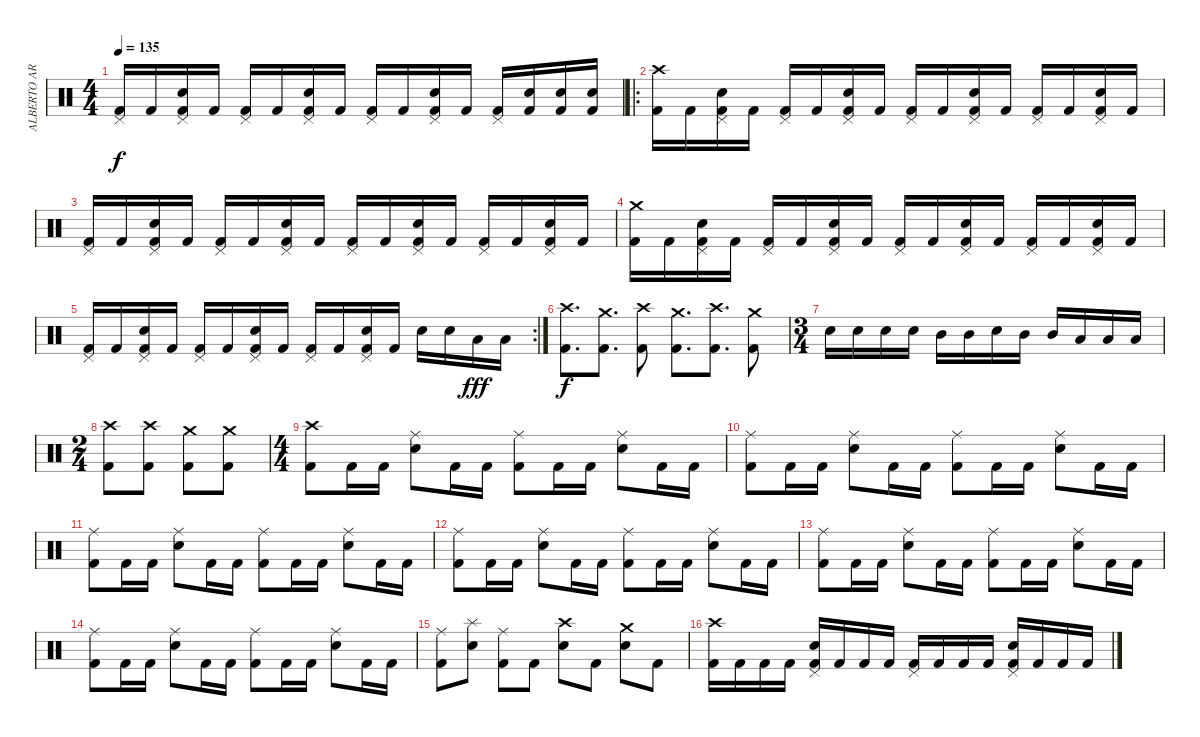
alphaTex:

\track ("ALBERTO ARDINES" "ALBERTO AR") {instrument percussion}
\staff {score}
\articulation defaults
\ts (4 4)
\tempo 135
\clef neutral
\ks c
("Pedal Hi-Hat (hit)" "Kick (hit) 2").16{dy f} "Kick (hit) 2".16 ("Pedal Hi-Hat (hit)" "Electric Snare (hit)" "Kick (hit) 2").16 "Kick (hit) 2".16 ("Pedal Hi-Hat (hit)" "Kick (hit) 2").16 "Kick (hit) 2".16 ("Pedal Hi-Hat (hit)" "Electric Snare (hit)" "Kick (hit) 2").16 "Kick (hit) 2".16 ("Pedal Hi-Hat (hit)" "Kick (hit) 2").16 "Kick (hit) 2".16 ("Pedal Hi-Hat (hit)" "Electric Snare (hit)" "Kick (hit) 2").16 "Kick (hit) 2".16 ("Pedal Hi-Hat (hit)" "Kick (hit) 2").16 ("Electric Snare (hit)" "Kick (hit) 2").16 ("Electric Snare (hit)" "Kick (hit) 2").16 ("Electric Snare (hit)" "Kick (hit) 2").16 |
\ro
("Crash high (hit)" "Kick (hit) 2").16 "Kick (hit) 2".16 ("Pedal Hi-Hat (hit)" "Electric Snare (hit)" "Kick (hit) 2").16 "Kick (hit) 2".16 ("Pedal Hi-Hat (hit)" "Kick (hit) 2").16 "Kick (hit) 2".16 ("Pedal Hi-Hat (hit)" "Electric Snare (hit)" "Kick (hit) 2").16 "Kick (hit) 2".16 ("Pedal Hi-Hat (hit)" "Kick (hit) 2").16 "Kick (hit) 2".16 ("Pedal Hi-Hat (hit)" "Electric Snare (hit)" "Kick (hit) 2").16 "Kick (hit) 2".16 ("Pedal Hi-Hat (hit)" "Kick (hit) 2").16 "Kick (hit) 2".16 ("Pedal Hi-Hat (hit)" "Electric Snare (hit)" "Kick (hit) 2").16 "Kick (hit) 2".16 |
("Pedal Hi-Hat (hit)" "Kick (hit) 2").16 "Kick (hit) 2".16 ("Pedal Hi-Hat (hit)" "Electric Snare (hit)" "Kick (hit) 2").16 "Kick (hit) 2".16 ("Pedal Hi-Hat (hit)" "Kick (hit) 2").16 "Kick (hit) 2".16 ("Pedal Hi-Hat (hit)" "Electric Snare (hit)" "Kick (hit) 2").16 "Kick (hit) 2".16 ("Pedal Hi-Hat (hit)" "Kick (hit) 2").16 "Kick (hit) 2".16 ("Pedal Hi-Hat (hit)" "Electric Snare (hit)" "Kick (hit) 2").16 "Kick (hit) 2".16 ("Pedal Hi-Hat (hit)" "Kick (hit) 2").16 "Kick (hit) 2".16 ("Pedal Hi-Hat (hit)" "Electric Snare (hit)" "Kick (hit) 2").16 "Kick (hit) 2".16 |
("Crash medium (hit)" "Kick (hit) 2").16 "Kick (hit) 2".16 ("Pedal Hi-Hat (hit)" "Electric Snare (hit)" "Kick (hit) 2").16 "Kick (hit) 2".16 ("Pedal Hi-Hat (hit)" "Kick (hit) 2").16 "Kick (hit) 2".16 ("Pedal Hi-Hat (hit)" "Electric Snare (hit)" "Kick (hit) 2").16 "Kick (hit) 2".16 ("Pedal Hi-Hat (hit)" "Kick (hit) 2").16 "Kick (hit) 2".16 ("Pedal Hi-Hat (hit)" "Electric Snare (hit)" "Kick (hit) 2").16 "Kick (hit) 2".16 ("Pedal Hi-Hat (hit)" "Kick (hit) 2").16 "Kick (hit) 2".16 ("Pedal Hi-Hat (hit)" "Electric Snare (hit)" "Kick (hit) 2").16 "Kick (hit) 2".16 |
\rc 2
("Pedal Hi-Hat (hit)" "Kick (hit) 2").16 "Kick (hit) 2".16 ("Pedal Hi-Hat (hit)" "Electric Snare (hit)" "Kick (hit) 2").16 "Kick (hit) 2".16 ("Pedal Hi-Hat (hit)" "Kick (hit) 2").16 "Kick (hit) 2".16 ("Pedal Hi-Hat (hit)" "Electric Snare (hit)" "Kick (hit) 2").16 "Kick (hit) 2".16 ("Pedal Hi-Hat (hit)" "Kick (hit) 2").16 "Kick (hit) 2".16 ("Pedal Hi-Hat (hit)" "Electric Snare (hit)" "Kick (hit) 2").16 "Kick (hit) 2".16 "Electric Snare (hit)".16 "Electric Snare (hit)".16 "Low Tom (hit)".16{dy fff} "Low Tom (hit)".16 |
("Crash high (hit)" "Kick (hit) 2").8{d dy f} ("Crash medium (hit)" "Kick (hit) 2").8{d} ("Crash high (hit)" "Kick (hit) 2").8 ("Crash medium (hit)" "Kick (hit) 2").8{d} ("Crash high (hit)" "Kick (hit) 2").8{d} ("Crash medium (hit)" "Kick (hit) 2").8 |
\ts (3 4)
"Electric Snare (hit)".16 "Electric Snare (hit)".16 "Electric Snare (hit)".16 "Electric Snare (hit)".16 "Mid Tom (hit)".16 "Mid Tom (hit)".16 "Electric Snare (hit)".16 "Mid Tom (hit)".16 "Mid Tom (hit)".16 "Low Tom (hit)".16 "Low Tom (hit)".16 "Low Tom (hit)".16 |
\ts (2 4)
("Crash high (hit)" "Kick (hit) 2").8 ("Crash high (hit)" "Kick (hit) 2").8 ("Crash medium (hit)" "Kick (hit) 2").8 ("Crash medium (hit)" "Kick (hit) 2").8 |
\ts (4 4)
("Crash high (hit)" "Kick (hit) 2").8 "Kick (hit) 2".16 "Kick (hit) 2".16 ("Ride (middle)" "Electric Snare (hit)").8 "Kick (hit) 2".16 "Kick (hit) 2".16 ("Ride (middle)" "Kick (hit) 2").8 "Kick (hit) 2".16 "Kick (hit) 2".16 ("Ride (middle)" "Electric Snare (hit)").8 "Kick (hit) 2".16 "Kick (hit) 2".16 |
("Ride (middle)" "Kick (hit) 2").8 "Kick (hit) 2".16 "Kick (hit) 2".16 ("Ride (middle)" "Electric Snare (hit)").8 "Kick (hit) 2".16 "Kick (hit) 2".16 ("Ride (middle)" "Kick (hit) 2").8 "Kick (hit) 2".16 "Kick (hit) 2".16 ("Ride (middle)" "Electric Snare (hit)").8 "Kick (hit) 2".16 "Kick (hit) 2".16 |
("Ride (middle)" "Kick (hit) 2").8 "Kick (hit) 2".16 "Kick (hit) 2".16 ("Ride (middle)" "Electric Snare (hit)").8 "Kick (hit) 2".16 "Kick (hit) 2".16 ("Ride (middle)" "Kick (hit) 2").8 "Kick (hit) 2".16 "Kick (hit) 2".16 ("Ride (middle)" "Electric Snare (hit)").8 "Kick (hit) 2".16 "Kick (hit) 2".16 |
("Ride (middle)" "Kick (hit) 2").8 "Kick (hit) 2".16 "Kick (hit) 2".16 ("Ride (middle)" "Electric Snare (hit)").8 "Kick (hit) 2".16 "Kick (hit) 2".16 ("Ride (middle)" "Kick (hit) 2").8 "Kick (hit) 2".16 "Kick (hit) 2".16 ("Ride (middle)" "Electric Snare (hit)").8 "Kick (hit) 2".16 "Kick (hit) 2".16 |
("Ride (middle)" "Kick (hit) 2").8 "Kick (hit) 2".16 "Kick (hit) 2".16 ("Ride (middle)" "Electric Snare (hit)").8 "Kick (hit) 2".16 "Kick (hit) 2".16 ("Ride (middle)" "Kick (hit) 2").8 "Kick (hit) 2".16 "Kick (hit) 2".16 ("Ride (middle)" "Electric Snare (hit)").8 "Kick (hit) 2".16 "Kick (hit) 2".16 |
("Ride (middle)" "Kick (hit) 2").8 "Kick (hit) 2".16 "Kick (hit) 2".16 ("Ride (middle)" "Electric Snare (hit)").8 "Kick (hit) 2".16 "Kick (hit) 2".16 ("Ride (middle)" "Kick (hit) 2").8 "Kick (hit) 2".16 "Kick (hit) 2".16 ("Ride (middle)" "Electric Snare (hit)").8 "Kick (hit) 2".16 "Kick (hit) 2".16 |
("Ride (middle)" "Kick (hit) 2").8 ("Splash (hit)" "Electric Snare (hit)").8 ("Ride (middle)" "Kick (hit) 2").8 "Kick (hit) 2".8 ("Crash high (hit)" "Electric Snare (hit)").8 "Kick (hit) 2".8 ("Crash medium (hit)" "Electric Snare (hit)").8 "Kick (hit) 2".8 |
("Crash high (hit)" "Kick (hit) 2").16 "Kick (hit) 2".16 "Kick (hit) 2".16 "Kick (hit) 2".16 ("Pedal Hi-Hat (hit)" "Electric Snare (hit)" "Kick (hit) 2").16 "Kick (hit) 2".16 "Kick (hit) 2".16 "Kick (hit) 2".16 ("Pedal Hi-Hat (hit)" "Kick (hit) 2").16 "Kick (hit) 2".16 "Kick (hit) 2".16 "Kick (hit) 2".16 ("Pedal Hi-Hat (hit)" "Electric Snare (hit)" "Kick (hit) 2").16 "Kick (hit) 2".16 "Kick (hit) 2".16 "Kick (hit) 2".16
